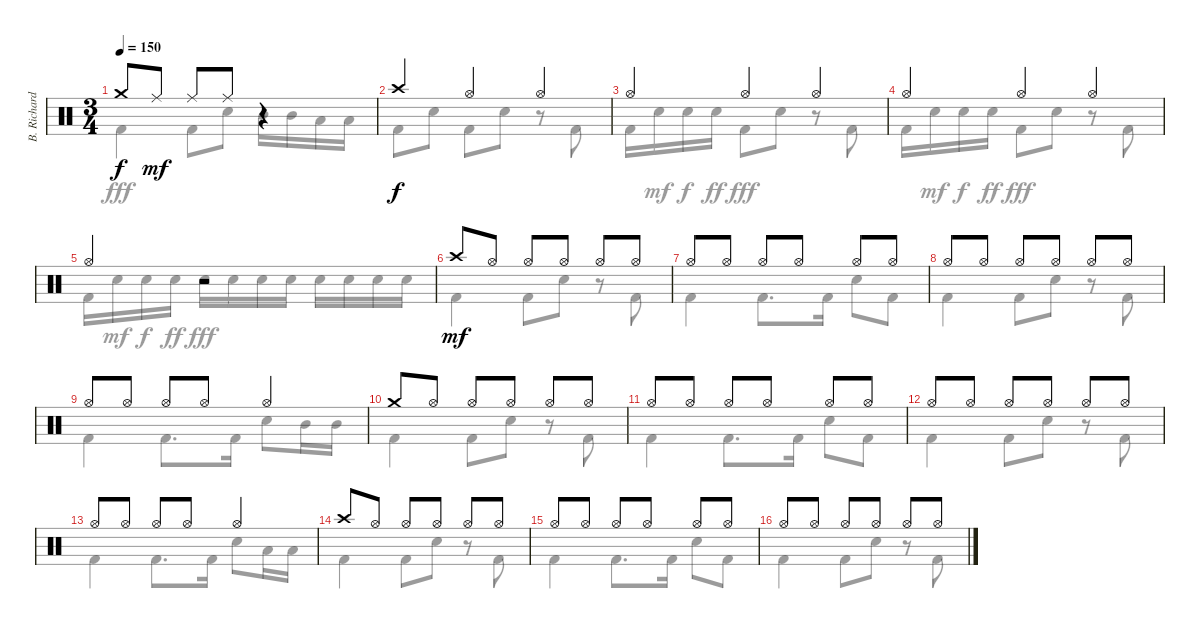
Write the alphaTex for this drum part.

\track ("B. Richardson Drums" "B. Richard") {instrument percussion}
\staff {score}
\articulation defaults
\voice
\ts (3 4)
\tempo 150
\clef neutral
\ks c "Crash medium (hit)".8{dy f} "Ride (middle)".8{dy mf} "Ride (middle)".8 "Ride (middle)".8
r.4 |
"Crash high (hit)".4{dy f} "Hi-Hat (open)".4 "Hi-Hat (open)".4 |
"Hi-Hat (open)".4 "Hi-Hat (open)".4 "Hi-Hat (open)".4 |
"Hi-Hat (open)".4 "Hi-Hat (open)".4 "Hi-Hat (open)".4 |
"Hi-Hat (open)".4 r.2 |
"Crash high (hit)".8{dy mf} "Hi-Hat (open)".8 "Hi-Hat (open)".8 "Hi-Hat (open)".8 "Hi-Hat (open)".8 "Hi-Hat (open)".8 |
"Hi-Hat (open)".8 "Hi-Hat (open)".8 "Hi-Hat (open)".8 "Hi-Hat (open)".8 "Hi-Hat (open)".8 "Hi-Hat (open)".8 |
"Hi-Hat (open)".8 "Hi-Hat (open)".8 "Hi-Hat (open)".8 "Hi-Hat (open)".8 "Hi-Hat (open)".8 "Hi-Hat (open)".8 |
"Hi-Hat (open)".8 "Hi-Hat (open)".8 "Hi-Hat (open)".8 "Hi-Hat (open)".8 "Hi-Hat (open)".4 |
"Crash medium (hit)".8 "Hi-Hat (open)".8 "Hi-Hat (open)".8 "Hi-Hat (open)".8 "Hi-Hat (open)".8 "Hi-Hat (open)".8 |
"Hi-Hat (open)".8 "Hi-Hat (open)".8 "Hi-Hat (open)".8 "Hi-Hat (open)".8 "Hi-Hat (open)".8 "Hi-Hat (open)".8 |
"Hi-Hat (open)".8 "Hi-Hat (open)".8 "Hi-Hat (open)".8 "Hi-Hat (open)".8 "Hi-Hat (open)".8 "Hi-Hat (open)".8 |
"Hi-Hat (open)".8 "Hi-Hat (open)".8 "Hi-Hat (open)".8 "Hi-Hat (open)".8 "Hi-Hat (open)".4 |
"Crash high (hit)".8 "Hi-Hat (open)".8 "Hi-Hat (open)".8 "Hi-Hat (open)".8 "Hi-Hat (open)".8 "Hi-Hat (open)".8 |
"Hi-Hat (open)".8 "Hi-Hat (open)".8 "Hi-Hat (open)".8 "Hi-Hat (open)".8 "Hi-Hat (open)".8 "Hi-Hat (open)".8 |
"Hi-Hat (open)".8 "Hi-Hat (open)".8 "Hi-Hat (open)".8 "Hi-Hat (open)".8 "Hi-Hat (open)".8 "Hi-Hat (open)".8
\voice
\clef neutral
\ottava regular
\simile none
\ks c "Kick (hit) 2".4{dy fff} "Kick (hit) 2".8 "Electric Snare (hit)".8 "Mid Tom (hit)".16 "Mid Tom (hit)".16 "Low Tom (hit)".16 "Low Tom (hit)".16
|
"Kick (hit) 2".8 "Electric Snare (hit)".8 "Kick (hit) 2".8 "Electric Snare (hit)".8 r.8 "Kick (hit) 2".8 |
"Kick (hit) 2".16 "Electric Snare (hit)".16{dy mf} "Electric Snare (hit)".16{dy f} "Electric Snare (hit)".16{dy ff} "Kick (hit) 2".8{dy fff} "Electric Snare (hit)".8 r.8 "Kick (hit) 2".8 |
"Kick (hit) 2".16 "Electric Snare (hit)".16{dy mf} "Electric Snare (hit)".16{dy f} "Electric Snare (hit)".16{dy ff} "Kick (hit) 2".8{dy fff} "Electric Snare (hit)".8 r.8 "Kick (hit) 2".8 |
"Kick (hit) 2".16 "Electric Snare (hit)".16{dy mf} "Electric Snare (hit)".16{dy f} "Electric Snare (hit)".16{dy ff} "Electric Snare (hit)".16{dy fff} "Electric Snare (hit)".16 "Electric Snare (hit)".16 "Electric Snare (hit)".16 "Electric Snare (hit)".16 "Electric Snare (hit)".16 "Electric Snare (hit)".16 "Electric Snare (hit)".16 |
"Kick (hit) 2".4 "Kick (hit) 2".8 "Electric Snare (hit)".8 r.8 "Kick (hit) 2".8 |
"Kick (hit) 2".4 "Kick (hit) 2".8{d} "Kick (hit) 2".16 "Electric Snare (hit)".8 "Kick (hit) 2".8 |
"Kick (hit) 2".4 "Kick (hit) 2".8 "Electric Snare (hit)".8 r.8 "Kick (hit) 2".8 |
"Kick (hit) 2".4 "Kick (hit) 2".8{d} "Kick (hit) 2".16 "Electric Snare (hit)".8 "Mid Tom (hit)".16 "Mid Tom (hit)".16 |
"Kick (hit) 2".4 "Kick (hit) 2".8 "Electric Snare (hit)".8 r.8 "Kick (hit) 2".8 |
"Kick (hit) 2".4 "Kick (hit) 2".8{d} "Kick (hit) 2".16 "Electric Snare (hit)".8 "Kick (hit) 2".8 |
"Kick (hit) 2".4 "Kick (hit) 2".8 "Electric Snare (hit)".8 r.8 "Kick (hit) 2".8 |
"Kick (hit) 2".4 "Kick (hit) 2".8{d} "Kick (hit) 2".16 "Electric Snare (hit)".8 "Low Tom (hit)".16 "Low Tom (hit)".16 |
"Kick (hit) 2".4 "Kick (hit) 2".8 "Electric Snare (hit)".8 r.8 "Kick (hit) 2".8 |
"Kick (hit) 2".4 "Kick (hit) 2".8{d} "Kick (hit) 2".16 "Electric Snare (hit)".8 "Kick (hit) 2".8 |
"Kick (hit) 2".4 "Kick (hit) 2".8 "Electric Snare (hit)".8 r.8 "Kick (hit) 2".8
